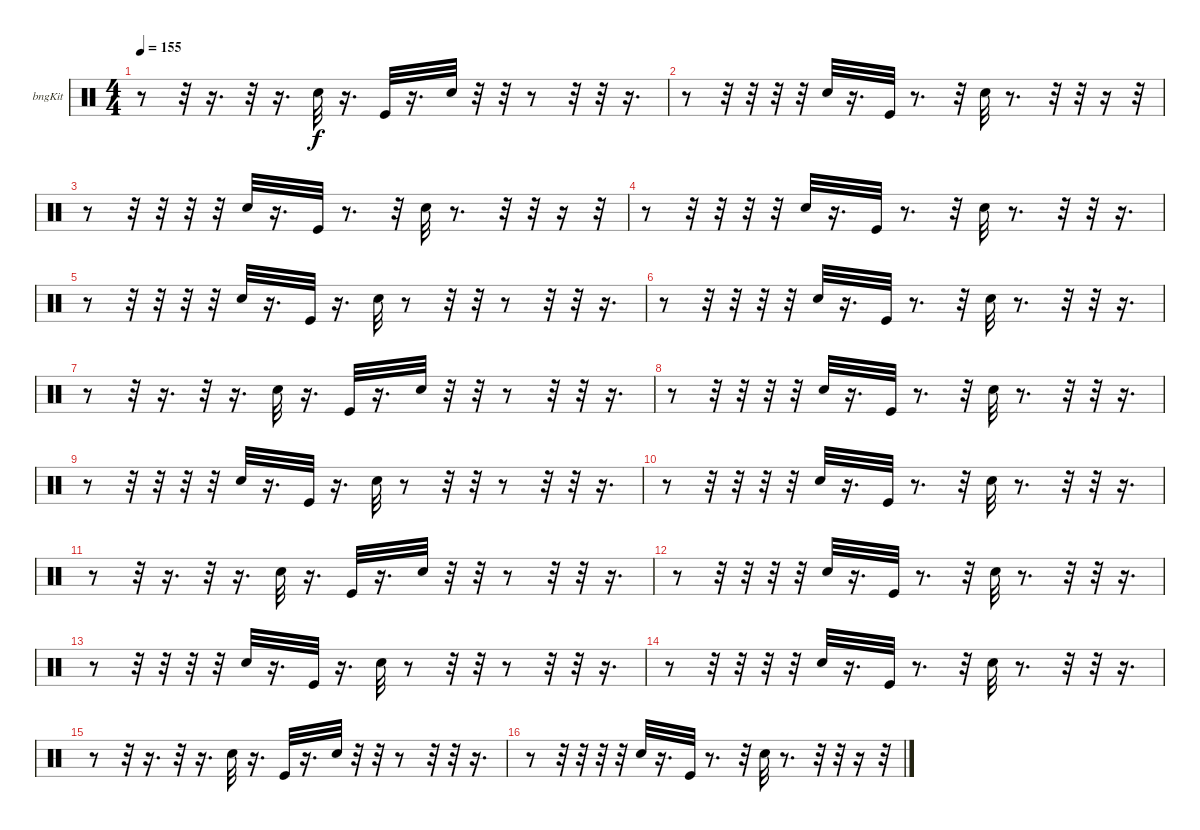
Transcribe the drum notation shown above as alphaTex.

\bracketExtendMode groupsimilarinstruments
\firstSystemTrackNameOrientation horizontal
\otherSystemsTrackNameOrientation horizontal
\track ("Е. Кулаков" "bngKit") {instrument percussion}
\staff {score}
\articulation defaults
\ts (4 4)
\tempo 155
\clef neutral
\ks c
r.8{dy f} r.32 r.16{d} r.32 r.16{d} "Snare (hit) 2".32 r.16{d} "Kick (hit)".32 r.16{d} "Snare (hit) 2".32 r.32 r.32 r.8 r.32 r.32 r.16{d} |
r.8 r.32 r.32 r.32 r.32 "Snare (hit) 2".32 r.16{d} "Kick (hit)".32 r.8{d} r.32 "Snare (hit) 2".32 r.8{d} r.32 r.32 r.16 r.32 |
r.8 r.32 r.32 r.32 r.32 "Snare (hit) 2".32 r.16{d} "Kick (hit)".32 r.8{d} r.32 "Snare (hit) 2".32 r.8{d} r.32 r.32 r.16 r.32 |
r.8 r.32 r.32 r.32 r.32 "Snare (hit) 2".32 r.16{d} "Kick (hit)".32 r.8{d} r.32 "Snare (hit) 2".32 r.8{d} r.32 r.32 r.16{d} |
r.8 r.32 r.32 r.32 r.32 "Snare (hit) 2".32 r.16{d} "Kick (hit)".32 r.16{d} "Snare (hit) 2".32 r.8 r.32 r.32 r.8 r.32 r.32 r.16{d} |
r.8 r.32 r.32 r.32 r.32 "Snare (hit) 2".32 r.16{d} "Kick (hit)".32 r.8{d} r.32 "Snare (hit) 2".32 r.8{d} r.32 r.32 r.16{d} |
r.8 r.32 r.16{d} r.32 r.16{d} "Snare (hit) 2".32 r.16{d} "Kick (hit)".32 r.16{d} "Snare (hit) 2".32 r.32 r.32 r.8 r.32 r.32 r.16{d} |
r.8 r.32 r.32 r.32 r.32 "Snare (hit) 2".32 r.16{d} "Kick (hit)".32 r.8{d} r.32 "Snare (hit) 2".32 r.8{d} r.32 r.32 r.16{d} |
r.8 r.32 r.32 r.32 r.32 "Snare (hit) 2".32 r.16{d} "Kick (hit)".32 r.16{d} "Snare (hit) 2".32 r.8 r.32 r.32 r.8 r.32 r.32 r.16{d} |
r.8 r.32 r.32 r.32 r.32 "Snare (hit) 2".32 r.16{d} "Kick (hit)".32 r.8{d} r.32 "Snare (hit) 2".32 r.8{d} r.32 r.32 r.16{d} |
r.8 r.32 r.16{d} r.32 r.16{d} "Snare (hit) 2".32 r.16{d} "Kick (hit)".32 r.16{d} "Snare (hit) 2".32 r.32 r.32 r.8 r.32 r.32 r.16{d} |
r.8 r.32 r.32 r.32 r.32 "Snare (hit) 2".32 r.16{d} "Kick (hit)".32 r.8{d} r.32 "Snare (hit) 2".32 r.8{d} r.32 r.32 r.16{d} |
r.8 r.32 r.32 r.32 r.32 "Snare (hit) 2".32 r.16{d} "Kick (hit)".32 r.16{d} "Snare (hit) 2".32 r.8 r.32 r.32 r.8 r.32 r.32 r.16{d} |
r.8 r.32 r.32 r.32 r.32 "Snare (hit) 2".32 r.16{d} "Kick (hit)".32 r.8{d} r.32 "Snare (hit) 2".32 r.8{d} r.32 r.32 r.16{d} |
r.8 r.32 r.16{d} r.32 r.16{d} "Snare (hit) 2".32 r.16{d} "Kick (hit)".32 r.16{d} "Snare (hit) 2".32 r.32 r.32 r.8 r.32 r.32 r.16{d} |
r.8 r.32 r.32 r.32 r.32 "Snare (hit) 2".32 r.16{d} "Kick (hit)".32 r.8{d} r.32 "Snare (hit) 2".32 r.8{d} r.32 r.32 r.16 r.32
